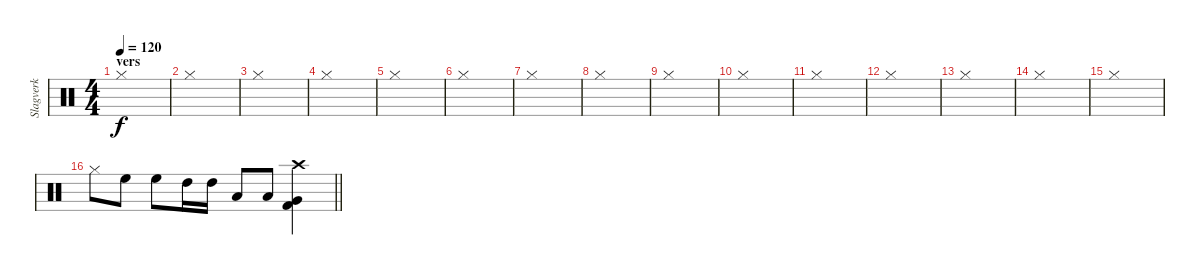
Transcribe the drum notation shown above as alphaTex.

\track ("Slagverk" "Slagverk") {instrument percussion}
\staff {score}
\articulation defaults
\ts (4 4)
\section ("" "vers")
\tempo 120
\clef neutral
\ks c "Hi-Hat (closed)".1{dy f}
|
"Hi-Hat (closed)".1 |
"Hi-Hat (closed)".1 |
"Hi-Hat (closed)".1 |
"Hi-Hat (closed)".1 |
"Hi-Hat (closed)".1 |
"Hi-Hat (closed)".1 |
"Hi-Hat (closed)".1 |
"Hi-Hat (closed)".1 |
"Hi-Hat (closed)".1 |
"Hi-Hat (closed)".1 |
"Hi-Hat (closed)".1 |
"Hi-Hat (closed)".1 |
"Hi-Hat (closed)".1 |
"Hi-Hat (closed)".1 |
\barLineRight lightlight "Hi-Hat (closed)".8 "High Floor Tom (hit)".8 "High Floor Tom (hit)".8 "High Tom (hit)".16 "High Tom (hit)".16 "Low Tom (hit)".8 "Low Tom (hit)".8
("Crash high (hit)" "Very Low Tom (hit)" "Kick (hit) 2").4
